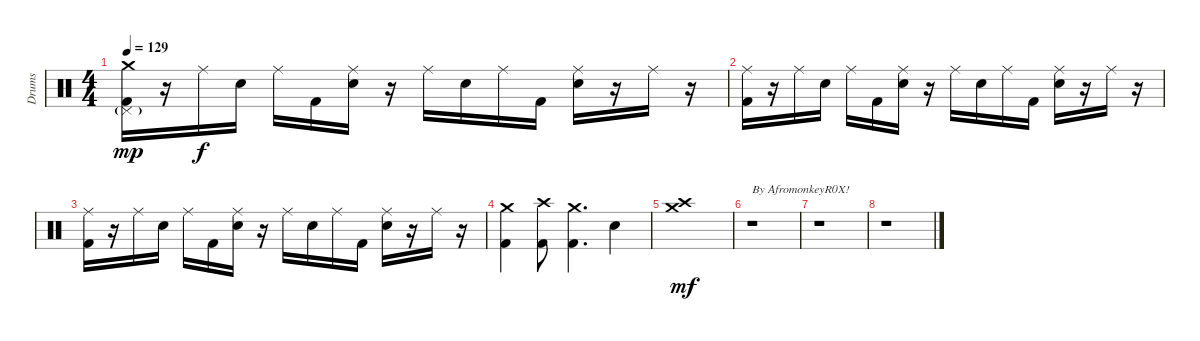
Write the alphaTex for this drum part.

\track ("Drums" "Drums") {instrument percussion}
\staff {score}
\articulation defaults
\ts (4 4)
\tempo 129
\clef neutral
\ks c
("Crash medium (hit)" "Pedal Hi-Hat (hit)"{g} "Kick (hit) 2").16{dy mp} r.16 "Ride (middle)".16{dy f} "Electric Snare (hit)".16 "Ride (middle)".16 "Kick (hit) 2".16 ("Ride (middle)" "Electric Snare (hit)").16 r.16 "Ride (middle)".16 "Electric Snare (hit)".16 "Ride (middle)".16 "Kick (hit) 2".16 ("Ride (middle)" "Electric Snare (hit)").16 r.16 "Ride (middle)".16 r.16 |
("Ride (middle)" "Kick (hit) 2").16 r.16 "Ride (middle)".16 "Electric Snare (hit)".16 "Ride (middle)".16 "Kick (hit) 2".16 ("Ride (middle)" "Electric Snare (hit)").16 r.16 "Ride (middle)".16 "Electric Snare (hit)".16 "Ride (middle)".16 "Kick (hit) 2".16 ("Ride (middle)" "Electric Snare (hit)").16 r.16 "Ride (middle)".16 r.16 |
("Ride (middle)" "Kick (hit) 2").16 r.16 "Ride (middle)".16 "Electric Snare (hit)".16 "Ride (middle)".16 "Kick (hit) 2".16 ("Ride (middle)" "Electric Snare (hit)").16 r.16 "Ride (middle)".16 "Electric Snare (hit)".16 "Ride (middle)".16 "Kick (hit) 2".16 ("Ride (middle)" "Electric Snare (hit)").16 r.16 "Ride (middle)".16 r.16 |
("Crash medium (hit)" "Kick (hit) 2").4 ("Crash high (hit)" "Kick (hit) 2").8 ("Crash medium (hit)" "Kick (hit) 2").4{d} "Electric Snare (hit)".4 |
("Crash medium (hit)" "Crash high (hit)").1{dy mf} |
r.1{txt "By AfromonkeyR0X!"} |
r.1 |
r.1
